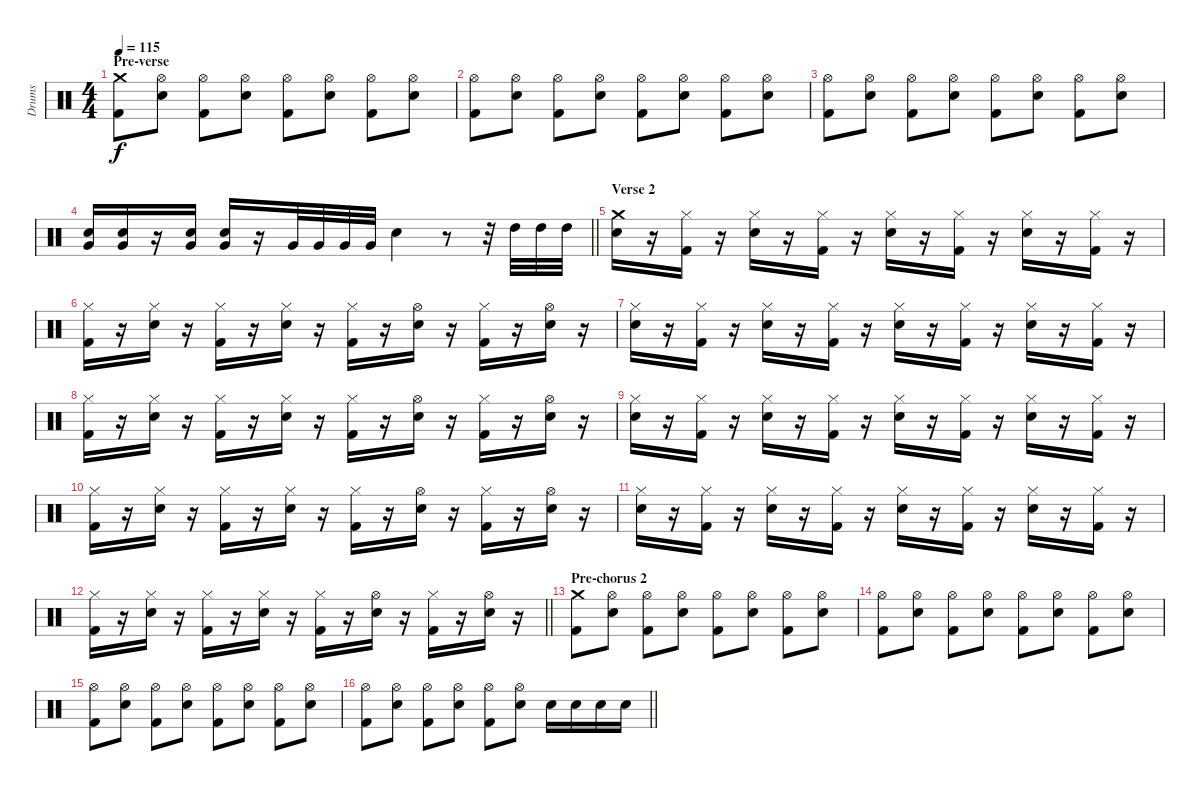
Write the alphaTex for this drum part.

\track ("Drums" "Drums") {instrument percussion}
\staff {score}
\articulation defaults
\ts (4 4)
\section ("" "Pre-verse")
\tempo 115
\clef neutral
\ks c
("Crash medium (hit)" "Kick (hit) 2").8{dy f} ("Hi-Hat (open)" "Snare (hit) 2").8 ("Hi-Hat (open)" "Kick (hit) 2").8 ("Hi-Hat (open)" "Snare (hit) 2").8 ("Hi-Hat (open)" "Kick (hit) 2").8 ("Hi-Hat (open)" "Snare (hit) 2").8 ("Hi-Hat (open)" "Kick (hit) 2").8 ("Hi-Hat (open)" "Snare (hit) 2").8 |
("Hi-Hat (open)" "Kick (hit) 2").8 ("Hi-Hat (open)" "Snare (hit) 2").8 ("Hi-Hat (open)" "Kick (hit) 2").8 ("Hi-Hat (open)" "Snare (hit) 2").8 ("Hi-Hat (open)" "Kick (hit) 2").8 ("Hi-Hat (open)" "Snare (hit) 2").8 ("Hi-Hat (open)" "Kick (hit) 2").8 ("Hi-Hat (open)" "Snare (hit) 2").8 |
("Hi-Hat (open)" "Kick (hit) 2").8 ("Hi-Hat (open)" "Snare (hit) 2").8 ("Hi-Hat (open)" "Kick (hit) 2").8 ("Hi-Hat (open)" "Snare (hit) 2").8 ("Hi-Hat (open)" "Kick (hit) 2").8 ("Hi-Hat (open)" "Snare (hit) 2").8 ("Hi-Hat (open)" "Kick (hit) 2").8 ("Hi-Hat (open)" "Snare (hit) 2").8 |
\barLineRight lightlight
("Snare (hit) 2" "Very Low Tom (hit)").16 ("Snare (hit) 2" "Very Low Tom (hit)").16 r.16 ("Snare (hit) 2" "Very Low Tom (hit)").16 ("Snare (hit) 2" "Very Low Tom (hit)").16 r.16 "Very Low Tom (hit)".32 "Very Low Tom (hit)".32 "Very Low Tom (hit)".32 "Very Low Tom (hit)".32 "Snare (hit) 2".4 r.8 r.32 "High Tom (hit)".32 "High Tom (hit)".32 "High Tom (hit)".32 |
\section ("" "Verse 2")
("Crash medium (hit)" "Snare (hit) 2").16 r.16 ("Hi-Hat (closed)" "Kick (hit) 2").16 r.16 ("Hi-Hat (closed)" "Snare (hit) 2").16 r.16 ("Hi-Hat (closed)" "Kick (hit) 2").16 r.16 ("Hi-Hat (closed)" "Snare (hit) 2").16 r.16 ("Hi-Hat (closed)" "Kick (hit) 2").16 r.16 ("Hi-Hat (closed)" "Snare (hit) 2").16 r.16 ("Hi-Hat (closed)" "Kick (hit) 2").16 r.16 |
("Hi-Hat (closed)" "Kick (hit) 2").16 r.16 ("Hi-Hat (closed)" "Snare (hit) 2").16 r.16 ("Hi-Hat (closed)" "Kick (hit) 2").16 r.16 ("Hi-Hat (closed)" "Snare (hit) 2").16 r.16 ("Hi-Hat (closed)" "Kick (hit) 2").16 r.16 ("Hi-Hat (open)" "Snare (hit) 2").16 r.16 ("Hi-Hat (closed)" "Kick (hit) 2").16 r.16 ("Hi-Hat (open)" "Snare (hit) 2").16 r.16 |
("Hi-Hat (closed)" "Snare (hit) 2").16 r.16 ("Hi-Hat (closed)" "Kick (hit) 2").16 r.16 ("Hi-Hat (closed)" "Snare (hit) 2").16 r.16 ("Hi-Hat (closed)" "Kick (hit) 2").16 r.16 ("Hi-Hat (closed)" "Snare (hit) 2").16 r.16 ("Hi-Hat (closed)" "Kick (hit) 2").16 r.16 ("Hi-Hat (closed)" "Snare (hit) 2").16 r.16 ("Hi-Hat (closed)" "Kick (hit) 2").16 r.16 |
("Hi-Hat (closed)" "Kick (hit) 2").16 r.16 ("Hi-Hat (closed)" "Snare (hit) 2").16 r.16 ("Hi-Hat (closed)" "Kick (hit) 2").16 r.16 ("Hi-Hat (closed)" "Snare (hit) 2").16 r.16 ("Hi-Hat (closed)" "Kick (hit) 2").16 r.16 ("Hi-Hat (open)" "Snare (hit) 2").16 r.16 ("Hi-Hat (closed)" "Kick (hit) 2").16 r.16 ("Hi-Hat (open)" "Snare (hit) 2").16 r.16 |
("Hi-Hat (closed)" "Snare (hit) 2").16 r.16 ("Hi-Hat (closed)" "Kick (hit) 2").16 r.16 ("Hi-Hat (closed)" "Snare (hit) 2").16 r.16 ("Hi-Hat (closed)" "Kick (hit) 2").16 r.16 ("Hi-Hat (closed)" "Snare (hit) 2").16 r.16 ("Hi-Hat (closed)" "Kick (hit) 2").16 r.16 ("Hi-Hat (closed)" "Snare (hit) 2").16 r.16 ("Hi-Hat (closed)" "Kick (hit) 2").16 r.16 |
("Hi-Hat (closed)" "Kick (hit) 2").16 r.16 ("Hi-Hat (closed)" "Snare (hit) 2").16 r.16 ("Hi-Hat (closed)" "Kick (hit) 2").16 r.16 ("Hi-Hat (closed)" "Snare (hit) 2").16 r.16 ("Hi-Hat (closed)" "Kick (hit) 2").16 r.16 ("Hi-Hat (open)" "Snare (hit) 2").16 r.16 ("Hi-Hat (closed)" "Kick (hit) 2").16 r.16 ("Hi-Hat (open)" "Snare (hit) 2").16 r.16 |
("Hi-Hat (closed)" "Snare (hit) 2").16 r.16 ("Hi-Hat (closed)" "Kick (hit) 2").16 r.16 ("Hi-Hat (closed)" "Snare (hit) 2").16 r.16 ("Hi-Hat (closed)" "Kick (hit) 2").16 r.16 ("Hi-Hat (closed)" "Snare (hit) 2").16 r.16 ("Hi-Hat (closed)" "Kick (hit) 2").16 r.16 ("Hi-Hat (closed)" "Snare (hit) 2").16 r.16 ("Hi-Hat (closed)" "Kick (hit) 2").16 r.16 |
\barLineRight lightlight
("Hi-Hat (closed)" "Kick (hit) 2").16 r.16 ("Hi-Hat (closed)" "Snare (hit) 2").16 r.16 ("Hi-Hat (closed)" "Kick (hit) 2").16 r.16 ("Hi-Hat (closed)" "Snare (hit) 2").16 r.16 ("Hi-Hat (closed)" "Kick (hit) 2").16 r.16 ("Hi-Hat (open)" "Snare (hit) 2").16 r.16 ("Hi-Hat (closed)" "Kick (hit) 2").16 r.16 ("Hi-Hat (open)" "Snare (hit) 2").16 r.16 |
\section ("" "Pre-chorus 2")
("Crash medium (hit)" "Kick (hit) 2").8 ("Hi-Hat (open)" "Snare (hit) 2").8 ("Hi-Hat (open)" "Kick (hit) 2").8 ("Hi-Hat (open)" "Snare (hit) 2").8 ("Hi-Hat (open)" "Kick (hit) 2").8 ("Hi-Hat (open)" "Snare (hit) 2").8 ("Hi-Hat (open)" "Kick (hit) 2").8 ("Hi-Hat (open)" "Snare (hit) 2").8 |
("Hi-Hat (open)" "Kick (hit) 2").8 ("Hi-Hat (open)" "Snare (hit) 2").8 ("Hi-Hat (open)" "Kick (hit) 2").8 ("Hi-Hat (open)" "Snare (hit) 2").8 ("Hi-Hat (open)" "Kick (hit) 2").8 ("Hi-Hat (open)" "Snare (hit) 2").8 ("Hi-Hat (open)" "Kick (hit) 2").8 ("Hi-Hat (open)" "Snare (hit) 2").8 |
("Hi-Hat (open)" "Kick (hit) 2").8 ("Hi-Hat (open)" "Snare (hit) 2").8 ("Hi-Hat (open)" "Kick (hit) 2").8 ("Hi-Hat (open)" "Snare (hit) 2").8 ("Hi-Hat (open)" "Kick (hit) 2").8 ("Hi-Hat (open)" "Snare (hit) 2").8 ("Hi-Hat (open)" "Kick (hit) 2").8 ("Hi-Hat (open)" "Snare (hit) 2").8 |
\barLineRight lightlight
("Hi-Hat (open)" "Kick (hit) 2").8 ("Hi-Hat (open)" "Snare (hit) 2").8 ("Hi-Hat (open)" "Kick (hit) 2").8 ("Hi-Hat (open)" "Snare (hit) 2").8 ("Hi-Hat (open)" "Kick (hit) 2").8 ("Hi-Hat (open)" "Snare (hit) 2").8 "Snare (hit) 2".16 "Snare (hit) 2".16 "Snare (hit) 2".16 "Snare (hit) 2".16
